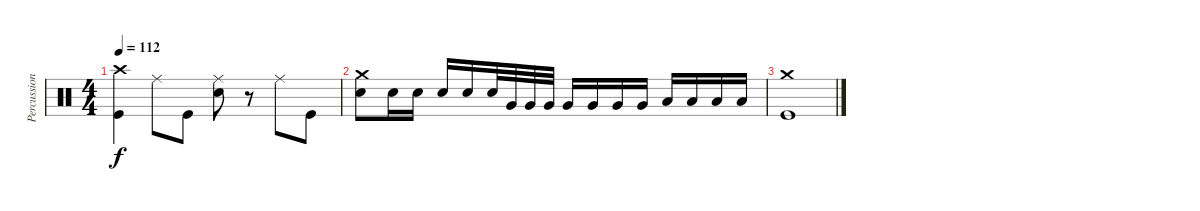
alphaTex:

\track ("Percussion" "Percussion") {instrument percussion}
\staff {score}
\articulation defaults
\ts (4 4)
\tempo 112
\clef neutral
\ks c
("Crash high (hit)" "Kick (hit)").4{dy f} "Ride (middle)".8 "Kick (hit)".8 ("Ride (middle)" "Snare (hit) 2").8 r.8 "Ride (middle)".8 "Kick (hit)".8 |
("Crash medium (hit)" "Snare (hit) 2").8 "Snare (hit) 2".16 "Snare (hit) 2".16 "Snare (hit) 2".16 "Snare (hit) 2".16 "Snare (hit) 2".32 "Very Low Tom (hit)".32 "Very Low Tom (hit)".32 "Very Low Tom (hit)".32 "Very Low Tom (hit)".16 "Very Low Tom (hit)".16 "Very Low Tom (hit)".16 "Very Low Tom (hit)".16 "Low Floor Tom (hit)".16 "Low Floor Tom (hit)".16 "Low Floor Tom (hit)".16 "Low Floor Tom (hit)".16 |
("Crash medium (hit)" "Kick (hit)").1
